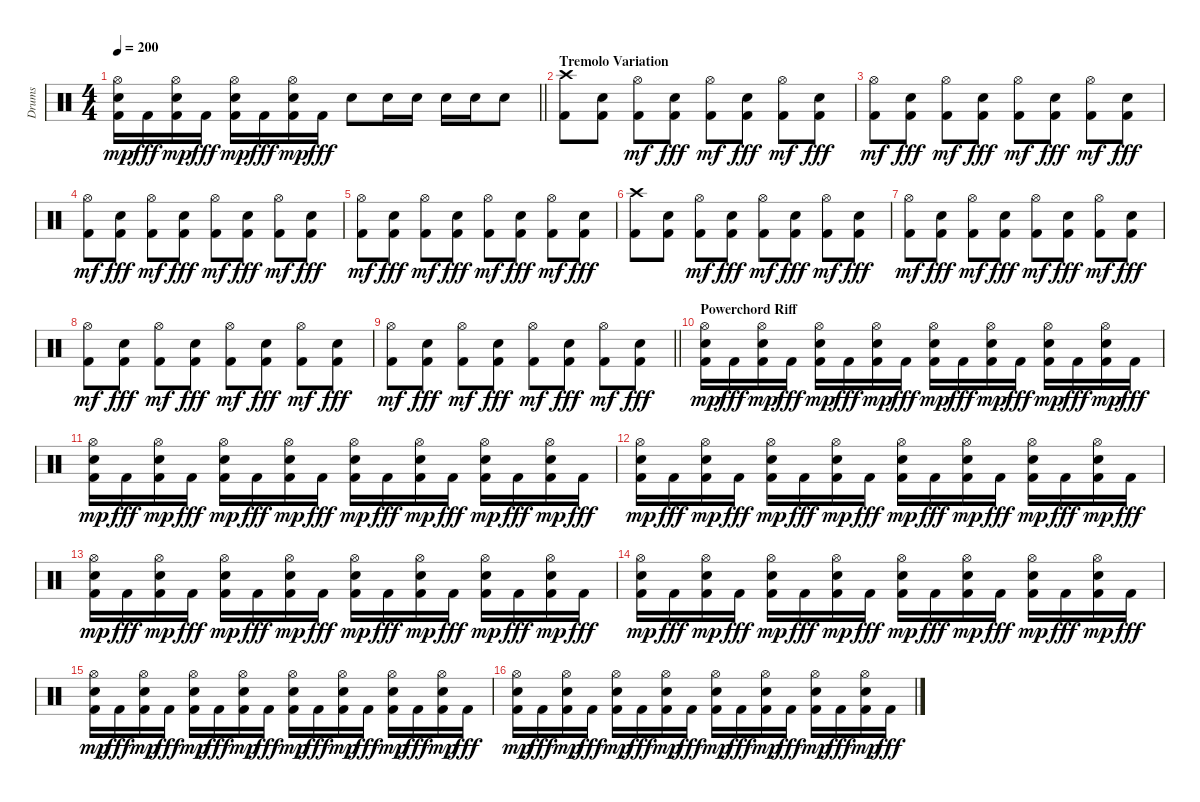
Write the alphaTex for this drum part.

\track ("Drums" "Drums") {instrument percussion}
\staff {score}
\articulation defaults
\ts (4 4)
\tempo 200
\clef neutral
\barLineRight lightlight
\ks c
("Kick (hit) 2" "Electric Snare (hit)" "Hi-Hat (open)").16{dy mp} "Kick (hit) 2".16{dy fff} ("Kick (hit) 2" "Electric Snare (hit)" "Hi-Hat (open)").16{dy mp} "Kick (hit) 2".16{dy fff} ("Kick (hit) 2" "Electric Snare (hit)" "Hi-Hat (open)").16{dy mp} "Kick (hit) 2".16{dy fff} ("Kick (hit) 2" "Electric Snare (hit)" "Hi-Hat (open)").16{dy mp} "Kick (hit) 2".16{dy fff} "Electric Snare (hit)".8 "Electric Snare (hit)".16 "Electric Snare (hit)".16 "Electric Snare (hit)".16 "Electric Snare (hit)".16 "Electric Snare (hit)".8 |
\section ("" "Tremolo Variation")
("Kick (hit) 2" "Crash high (hit)").8 ("Kick (hit) 2" "Electric Snare (hit)").8 ("Kick (hit) 2" "Hi-Hat (open)").8{dy mf} ("Kick (hit) 2" "Electric Snare (hit)").8{dy fff} ("Kick (hit) 2" "Hi-Hat (open)").8{dy mf} ("Kick (hit) 2" "Electric Snare (hit)").8{dy fff} ("Kick (hit) 2" "Hi-Hat (open)").8{dy mf} ("Kick (hit) 2" "Electric Snare (hit)").8{dy fff} |
("Kick (hit) 2" "Hi-Hat (open)").8{dy mf} ("Kick (hit) 2" "Electric Snare (hit)").8{dy fff} ("Kick (hit) 2" "Hi-Hat (open)").8{dy mf} ("Kick (hit) 2" "Electric Snare (hit)").8{dy fff} ("Kick (hit) 2" "Hi-Hat (open)").8{dy mf} ("Kick (hit) 2" "Electric Snare (hit)").8{dy fff} ("Kick (hit) 2" "Hi-Hat (open)").8{dy mf} ("Kick (hit) 2" "Electric Snare (hit)").8{dy fff} |
("Kick (hit) 2" "Hi-Hat (open)").8{dy mf} ("Kick (hit) 2" "Electric Snare (hit)").8{dy fff} ("Kick (hit) 2" "Hi-Hat (open)").8{dy mf} ("Kick (hit) 2" "Electric Snare (hit)").8{dy fff} ("Kick (hit) 2" "Hi-Hat (open)").8{dy mf} ("Kick (hit) 2" "Electric Snare (hit)").8{dy fff} ("Kick (hit) 2" "Hi-Hat (open)").8{dy mf} ("Kick (hit) 2" "Electric Snare (hit)").8{dy fff} |
("Kick (hit) 2" "Hi-Hat (open)").8{dy mf} ("Kick (hit) 2" "Electric Snare (hit)").8{dy fff} ("Kick (hit) 2" "Hi-Hat (open)").8{dy mf} ("Kick (hit) 2" "Electric Snare (hit)").8{dy fff} ("Kick (hit) 2" "Hi-Hat (open)").8{dy mf} ("Kick (hit) 2" "Electric Snare (hit)").8{dy fff} ("Kick (hit) 2" "Hi-Hat (open)").8{dy mf} ("Kick (hit) 2" "Electric Snare (hit)").8{dy fff} |
("Kick (hit) 2" "Crash high (hit)").8 ("Kick (hit) 2" "Electric Snare (hit)").8 ("Kick (hit) 2" "Hi-Hat (open)").8{dy mf} ("Kick (hit) 2" "Electric Snare (hit)").8{dy fff} ("Kick (hit) 2" "Hi-Hat (open)").8{dy mf} ("Kick (hit) 2" "Electric Snare (hit)").8{dy fff} ("Kick (hit) 2" "Hi-Hat (open)").8{dy mf} ("Kick (hit) 2" "Electric Snare (hit)").8{dy fff} |
("Kick (hit) 2" "Hi-Hat (open)").8{dy mf} ("Kick (hit) 2" "Electric Snare (hit)").8{dy fff} ("Kick (hit) 2" "Hi-Hat (open)").8{dy mf} ("Kick (hit) 2" "Electric Snare (hit)").8{dy fff} ("Kick (hit) 2" "Hi-Hat (open)").8{dy mf} ("Kick (hit) 2" "Electric Snare (hit)").8{dy fff} ("Kick (hit) 2" "Hi-Hat (open)").8{dy mf} ("Kick (hit) 2" "Electric Snare (hit)").8{dy fff} |
("Kick (hit) 2" "Hi-Hat (open)").8{dy mf} ("Kick (hit) 2" "Electric Snare (hit)").8{dy fff} ("Kick (hit) 2" "Hi-Hat (open)").8{dy mf} ("Kick (hit) 2" "Electric Snare (hit)").8{dy fff} ("Kick (hit) 2" "Hi-Hat (open)").8{dy mf} ("Kick (hit) 2" "Electric Snare (hit)").8{dy fff} ("Kick (hit) 2" "Hi-Hat (open)").8{dy mf} ("Kick (hit) 2" "Electric Snare (hit)").8{dy fff} |
\barLineRight lightlight
("Kick (hit) 2" "Hi-Hat (open)").8{dy mf} ("Kick (hit) 2" "Electric Snare (hit)").8{dy fff} ("Kick (hit) 2" "Hi-Hat (open)").8{dy mf} ("Kick (hit) 2" "Electric Snare (hit)").8{dy fff} ("Kick (hit) 2" "Hi-Hat (open)").8{dy mf} ("Kick (hit) 2" "Electric Snare (hit)").8{dy fff} ("Kick (hit) 2" "Hi-Hat (open)").8{dy mf} ("Kick (hit) 2" "Electric Snare (hit)").8{dy fff} |
\section ("" "Powerchord Riff")
("Kick (hit) 2" "Electric Snare (hit)" "Hi-Hat (open)").16{dy mp} "Kick (hit) 2".16{dy fff} ("Kick (hit) 2" "Electric Snare (hit)" "Hi-Hat (open)").16{dy mp} "Kick (hit) 2".16{dy fff} ("Kick (hit) 2" "Electric Snare (hit)" "Hi-Hat (open)").16{dy mp} "Kick (hit) 2".16{dy fff} ("Kick (hit) 2" "Electric Snare (hit)" "Hi-Hat (open)").16{dy mp} "Kick (hit) 2".16{dy fff} ("Kick (hit) 2" "Electric Snare (hit)" "Hi-Hat (open)").16{dy mp} "Kick (hit) 2".16{dy fff} ("Kick (hit) 2" "Electric Snare (hit)" "Hi-Hat (open)").16{dy mp} "Kick (hit) 2".16{dy fff} ("Kick (hit) 2" "Electric Snare (hit)" "Hi-Hat (open)").16{dy mp} "Kick (hit) 2".16{dy fff} ("Kick (hit) 2" "Electric Snare (hit)" "Hi-Hat (open)").16{dy mp} "Kick (hit) 2".16{dy fff} |
("Kick (hit) 2" "Electric Snare (hit)" "Hi-Hat (open)").16{dy mp} "Kick (hit) 2".16{dy fff} ("Kick (hit) 2" "Electric Snare (hit)" "Hi-Hat (open)").16{dy mp} "Kick (hit) 2".16{dy fff} ("Kick (hit) 2" "Electric Snare (hit)" "Hi-Hat (open)").16{dy mp} "Kick (hit) 2".16{dy fff} ("Kick (hit) 2" "Electric Snare (hit)" "Hi-Hat (open)").16{dy mp} "Kick (hit) 2".16{dy fff} ("Kick (hit) 2" "Electric Snare (hit)" "Hi-Hat (open)").16{dy mp} "Kick (hit) 2".16{dy fff} ("Kick (hit) 2" "Electric Snare (hit)" "Hi-Hat (open)").16{dy mp} "Kick (hit) 2".16{dy fff} ("Kick (hit) 2" "Electric Snare (hit)" "Hi-Hat (open)").16{dy mp} "Kick (hit) 2".16{dy fff} ("Kick (hit) 2" "Electric Snare (hit)" "Hi-Hat (open)").16{dy mp} "Kick (hit) 2".16{dy fff} |
("Kick (hit) 2" "Electric Snare (hit)" "Hi-Hat (open)").16{dy mp} "Kick (hit) 2".16{dy fff} ("Kick (hit) 2" "Electric Snare (hit)" "Hi-Hat (open)").16{dy mp} "Kick (hit) 2".16{dy fff} ("Kick (hit) 2" "Electric Snare (hit)" "Hi-Hat (open)").16{dy mp} "Kick (hit) 2".16{dy fff} ("Kick (hit) 2" "Electric Snare (hit)" "Hi-Hat (open)").16{dy mp} "Kick (hit) 2".16{dy fff} ("Kick (hit) 2" "Electric Snare (hit)" "Hi-Hat (open)").16{dy mp} "Kick (hit) 2".16{dy fff} ("Kick (hit) 2" "Electric Snare (hit)" "Hi-Hat (open)").16{dy mp} "Kick (hit) 2".16{dy fff} ("Kick (hit) 2" "Electric Snare (hit)" "Hi-Hat (open)").16{dy mp} "Kick (hit) 2".16{dy fff} ("Kick (hit) 2" "Electric Snare (hit)" "Hi-Hat (open)").16{dy mp} "Kick (hit) 2".16{dy fff} |
("Kick (hit) 2" "Electric Snare (hit)" "Hi-Hat (open)").16{dy mp} "Kick (hit) 2".16{dy fff} ("Kick (hit) 2" "Electric Snare (hit)" "Hi-Hat (open)").16{dy mp} "Kick (hit) 2".16{dy fff} ("Kick (hit) 2" "Electric Snare (hit)" "Hi-Hat (open)").16{dy mp} "Kick (hit) 2".16{dy fff} ("Kick (hit) 2" "Electric Snare (hit)" "Hi-Hat (open)").16{dy mp} "Kick (hit) 2".16{dy fff} ("Kick (hit) 2" "Electric Snare (hit)" "Hi-Hat (open)").16{dy mp} "Kick (hit) 2".16{dy fff} ("Kick (hit) 2" "Electric Snare (hit)" "Hi-Hat (open)").16{dy mp} "Kick (hit) 2".16{dy fff} ("Kick (hit) 2" "Electric Snare (hit)" "Hi-Hat (open)").16{dy mp} "Kick (hit) 2".16{dy fff} ("Kick (hit) 2" "Electric Snare (hit)" "Hi-Hat (open)").16{dy mp} "Kick (hit) 2".16{dy fff} |
("Kick (hit) 2" "Electric Snare (hit)" "Hi-Hat (open)").16{dy mp} "Kick (hit) 2".16{dy fff} ("Kick (hit) 2" "Electric Snare (hit)" "Hi-Hat (open)").16{dy mp} "Kick (hit) 2".16{dy fff} ("Kick (hit) 2" "Electric Snare (hit)" "Hi-Hat (open)").16{dy mp} "Kick (hit) 2".16{dy fff} ("Kick (hit) 2" "Electric Snare (hit)" "Hi-Hat (open)").16{dy mp} "Kick (hit) 2".16{dy fff} ("Kick (hit) 2" "Electric Snare (hit)" "Hi-Hat (open)").16{dy mp} "Kick (hit) 2".16{dy fff} ("Kick (hit) 2" "Electric Snare (hit)" "Hi-Hat (open)").16{dy mp} "Kick (hit) 2".16{dy fff} ("Kick (hit) 2" "Electric Snare (hit)" "Hi-Hat (open)").16{dy mp} "Kick (hit) 2".16{dy fff} ("Kick (hit) 2" "Electric Snare (hit)" "Hi-Hat (open)").16{dy mp} "Kick (hit) 2".16{dy fff} |
("Kick (hit) 2" "Electric Snare (hit)" "Hi-Hat (open)").16{dy mp} "Kick (hit) 2".16{dy fff} ("Kick (hit) 2" "Electric Snare (hit)" "Hi-Hat (open)").16{dy mp} "Kick (hit) 2".16{dy fff} ("Kick (hit) 2" "Electric Snare (hit)" "Hi-Hat (open)").16{dy mp} "Kick (hit) 2".16{dy fff} ("Kick (hit) 2" "Electric Snare (hit)" "Hi-Hat (open)").16{dy mp} "Kick (hit) 2".16{dy fff} ("Kick (hit) 2" "Electric Snare (hit)" "Hi-Hat (open)").16{dy mp} "Kick (hit) 2".16{dy fff} ("Kick (hit) 2" "Electric Snare (hit)" "Hi-Hat (open)").16{dy mp} "Kick (hit) 2".16{dy fff} ("Kick (hit) 2" "Electric Snare (hit)" "Hi-Hat (open)").16{dy mp} "Kick (hit) 2".16{dy fff} ("Kick (hit) 2" "Electric Snare (hit)" "Hi-Hat (open)").16{dy mp} "Kick (hit) 2".16{dy fff} |
("Kick (hit) 2" "Electric Snare (hit)" "Hi-Hat (open)").16{dy mp} "Kick (hit) 2".16{dy fff} ("Kick (hit) 2" "Electric Snare (hit)" "Hi-Hat (open)").16{dy mp} "Kick (hit) 2".16{dy fff} ("Kick (hit) 2" "Electric Snare (hit)" "Hi-Hat (open)").16{dy mp} "Kick (hit) 2".16{dy fff} ("Kick (hit) 2" "Electric Snare (hit)" "Hi-Hat (open)").16{dy mp} "Kick (hit) 2".16{dy fff} ("Kick (hit) 2" "Electric Snare (hit)" "Hi-Hat (open)").16{dy mp} "Kick (hit) 2".16{dy fff} ("Kick (hit) 2" "Electric Snare (hit)" "Hi-Hat (open)").16{dy mp} "Kick (hit) 2".16{dy fff} ("Kick (hit) 2" "Electric Snare (hit)" "Hi-Hat (open)").16{dy mp} "Kick (hit) 2".16{dy fff} ("Kick (hit) 2" "Electric Snare (hit)" "Hi-Hat (open)").16{dy mp} "Kick (hit) 2".16{dy fff}
